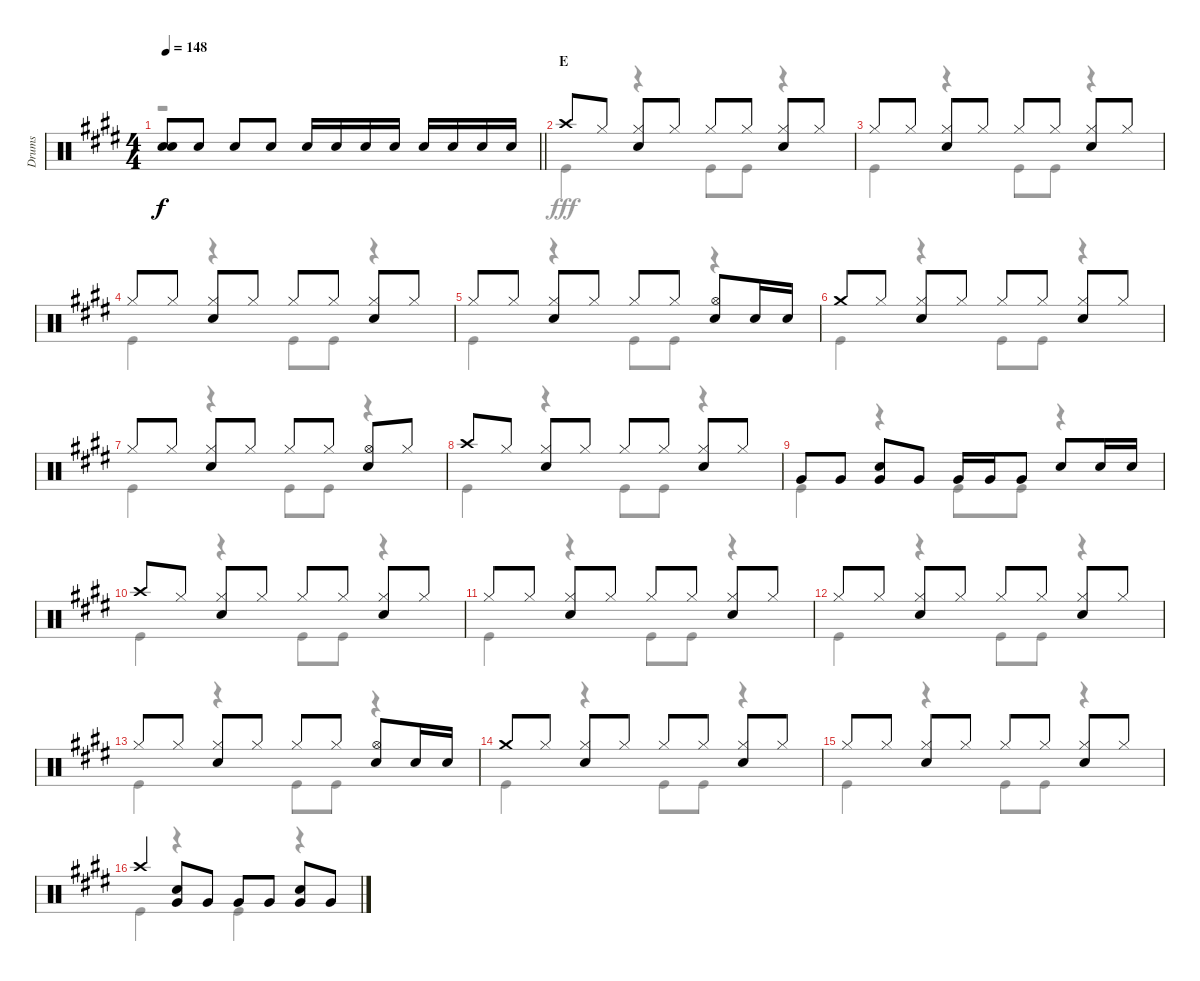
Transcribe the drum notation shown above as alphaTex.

\track ("Drums" "Drums") {instrument percussion}
\staff {score}
\articulation defaults
\voice
\ts (4 4)
\tempo 148
\clef neutral
\barLineRight lightlight
\ks e
("Snare (hit)"{t} "Snare (hit) 2").8{dy f} "Snare (hit) 2".8 "Snare (hit) 2".8 "Snare (hit) 2".8 "Snare (hit) 2".16 "Snare (hit) 2".16 "Snare (hit) 2".16 "Snare (hit) 2".16 "Snare (hit) 2".16 "Snare (hit) 2".16 "Snare (hit) 2".16 "Snare (hit) 2".16 |
\section ("" "E")
"Crash high (hit)".8 "Hi-Hat (closed)".8 ("Hi-Hat (closed)" "Snare (hit) 2").8 "Hi-Hat (closed)".8 "Hi-Hat (closed)".8 "Hi-Hat (closed)".8 ("Hi-Hat (closed)" "Snare (hit) 2").8 "Hi-Hat (closed)".8 |
"Hi-Hat (closed)".8 "Hi-Hat (closed)".8 ("Hi-Hat (closed)" "Snare (hit) 2").8 "Hi-Hat (closed)".8 "Hi-Hat (closed)".8 "Hi-Hat (closed)".8 ("Hi-Hat (closed)" "Snare (hit) 2").8 "Hi-Hat (closed)".8 |
"Hi-Hat (closed)".8 "Hi-Hat (closed)".8 ("Hi-Hat (closed)" "Snare (hit) 2").8 "Hi-Hat (closed)".8 "Hi-Hat (closed)".8 "Hi-Hat (closed)".8 ("Hi-Hat (closed)" "Snare (hit) 2").8 "Hi-Hat (closed)".8 |
"Hi-Hat (closed)".8 "Hi-Hat (closed)".8 ("Hi-Hat (closed)" "Snare (hit) 2").8 "Hi-Hat (closed)".8 "Hi-Hat (closed)".8 "Hi-Hat (closed)".8 ("Hi-Hat (open)" "Snare (hit) 2").8 "Snare (hit) 2".16 "Snare (hit) 2".16 |
"Crash medium (hit)".8 "Hi-Hat (closed)".8 ("Hi-Hat (closed)" "Snare (hit) 2").8 "Hi-Hat (closed)".8 "Hi-Hat (closed)".8 "Hi-Hat (closed)".8 ("Hi-Hat (closed)" "Snare (hit) 2").8 "Hi-Hat (closed)".8 |
"Hi-Hat (closed)".8 "Hi-Hat (closed)".8 ("Hi-Hat (closed)" "Snare (hit) 2").8 "Hi-Hat (closed)".8 "Hi-Hat (closed)".8 "Hi-Hat (closed)".8 ("Hi-Hat (open)" "Snare (hit) 2").8 "Hi-Hat (closed)".8 |
"Crash high (hit)".8 "Hi-Hat (closed)".8 ("Hi-Hat (closed)" "Snare (hit) 2").8 "Hi-Hat (closed)".8 "Hi-Hat (closed)".8 "Hi-Hat (closed)".8 ("Hi-Hat (closed)" "Snare (hit) 2").8 "Hi-Hat (closed)".8 |
"Very Low Tom (hit)".8 "Very Low Tom (hit)".8 ("Snare (hit) 2" "Very Low Tom (hit)").8 "Very Low Tom (hit)".8 "Very Low Tom (hit)".16 "Very Low Tom (hit)".16 "Very Low Tom (hit)".8 "Snare (hit) 2".8 "Snare (hit) 2".16 "Snare (hit) 2".16 |
"Crash high (hit)".8 "Hi-Hat (closed)".8 ("Hi-Hat (closed)" "Snare (hit) 2").8 "Hi-Hat (closed)".8 "Hi-Hat (closed)".8 "Hi-Hat (closed)".8 ("Hi-Hat (closed)" "Snare (hit) 2").8 "Hi-Hat (closed)".8 |
"Hi-Hat (closed)".8 "Hi-Hat (closed)".8 ("Hi-Hat (closed)" "Snare (hit) 2").8 "Hi-Hat (closed)".8 "Hi-Hat (closed)".8 "Hi-Hat (closed)".8 ("Hi-Hat (closed)" "Snare (hit) 2").8 "Hi-Hat (closed)".8 |
"Hi-Hat (closed)".8 "Hi-Hat (closed)".8 ("Hi-Hat (closed)" "Snare (hit) 2").8 "Hi-Hat (closed)".8 "Hi-Hat (closed)".8 "Hi-Hat (closed)".8 ("Hi-Hat (closed)" "Snare (hit) 2").8 "Hi-Hat (closed)".8 |
"Hi-Hat (closed)".8 "Hi-Hat (closed)".8 ("Hi-Hat (closed)" "Snare (hit) 2").8 "Hi-Hat (closed)".8 "Hi-Hat (closed)".8 "Hi-Hat (closed)".8 ("Hi-Hat (open)" "Snare (hit) 2").8 "Snare (hit) 2".16 "Snare (hit) 2".16 |
"Crash medium (hit)".8 "Hi-Hat (closed)".8 ("Hi-Hat (closed)" "Snare (hit) 2").8 "Hi-Hat (closed)".8 "Hi-Hat (closed)".8 "Hi-Hat (closed)".8 ("Hi-Hat (closed)" "Snare (hit) 2").8 "Hi-Hat (closed)".8 |
"Hi-Hat (closed)".8 "Hi-Hat (closed)".8 ("Hi-Hat (closed)" "Snare (hit) 2").8 "Hi-Hat (closed)".8 "Hi-Hat (closed)".8 "Hi-Hat (closed)".8 ("Hi-Hat (closed)" "Snare (hit) 2").8 "Hi-Hat (closed)".8 |
"Crash high (hit)".4 ("Snare (hit) 2" "Very Low Tom (hit)").8 "Very Low Tom (hit)".8 "Very Low Tom (hit)".8 "Very Low Tom (hit)".8 ("Snare (hit) 2" "Very Low Tom (hit)").8 "Very Low Tom (hit)".8
\voice
\clef neutral
\ottava regular
\simile none
\barLineRight lightlight
\ks e
r.1{dy fff} |
"Kick (hit)".4 r.4 "Kick (hit)".8 "Kick (hit)".8 r.4 |
"Kick (hit)".4 r.4 "Kick (hit)".8 "Kick (hit)".8 r.4 |
"Kick (hit)".4 r.4 "Kick (hit)".8 "Kick (hit)".8 r.4 |
"Kick (hit)".4 r.4 "Kick (hit)".8 "Kick (hit)".8 r.4 |
"Kick (hit)".4 r.4 "Kick (hit)".8 "Kick (hit)".8 r.4 |
"Kick (hit)".4 r.4 "Kick (hit)".8 "Kick (hit)".8 r.4 |
"Kick (hit)".4 r.4 "Kick (hit)".8 "Kick (hit)".8 r.4 |
"Kick (hit)".4 r.4 "Kick (hit)".8 "Kick (hit)".8 r.4 |
"Kick (hit)".4 r.4 "Kick (hit)".8 "Kick (hit)".8 r.4 |
"Kick (hit)".4 r.4 "Kick (hit)".8 "Kick (hit)".8 r.4 |
"Kick (hit)".4 r.4 "Kick (hit)".8 "Kick (hit)".8 r.4 |
"Kick (hit)".4 r.4 "Kick (hit)".8 "Kick (hit)".8 r.4 |
"Kick (hit)".4 r.4 "Kick (hit)".8 "Kick (hit)".8 r.4 |
"Kick (hit)".4 r.4 "Kick (hit)".8 "Kick (hit)".8 r.4 |
"Kick (hit)".4 r.4 "Kick (hit)".4 r.4
